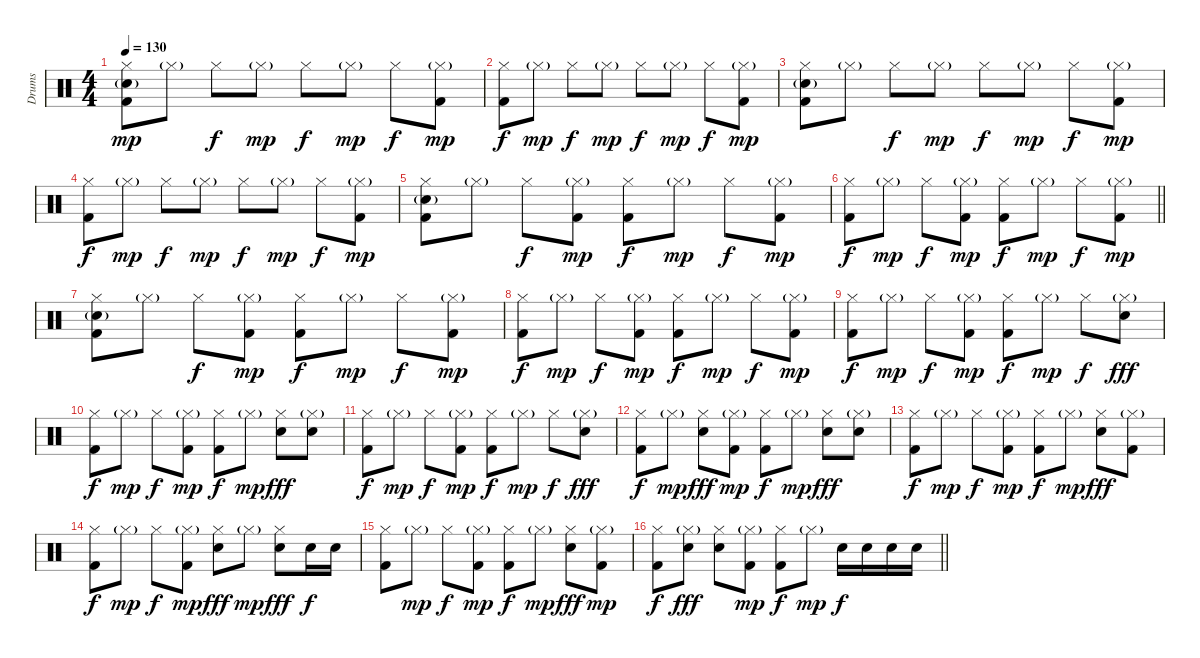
\track ("Drums" "Drums") {instrument percussion}
\staff {score}
\articulation defaults
\ts (4 4)
\tempo 130
\clef neutral
\ks c
("Hi-Hat (closed)" "Snare (hit) 2"{g} "Kick (hit) 2").8{dy mp} "Hi-Hat (closed)"{g}.8 "Hi-Hat (closed)".8{dy f} "Hi-Hat (closed)"{g}.8{dy mp} "Hi-Hat (closed)".8{dy f} "Hi-Hat (closed)"{g}.8{dy mp} "Hi-Hat (closed)".8{dy f} ("Hi-Hat (closed)"{g} "Kick (hit) 2").8{dy mp} |
("Hi-Hat (closed)" "Kick (hit) 2").8{dy f} "Hi-Hat (closed)"{g}.8{dy mp} "Hi-Hat (closed)".8{dy f} "Hi-Hat (closed)"{g}.8{dy mp} "Hi-Hat (closed)".8{dy f} "Hi-Hat (closed)"{g}.8{dy mp} "Hi-Hat (closed)".8{dy f} ("Hi-Hat (closed)"{g} "Kick (hit) 2").8{dy mp} |
("Hi-Hat (closed)" "Snare (hit) 2"{g} "Kick (hit) 2").8 "Hi-Hat (closed)"{g}.8 "Hi-Hat (closed)".8{dy f} "Hi-Hat (closed)"{g}.8{dy mp} "Hi-Hat (closed)".8{dy f} "Hi-Hat (closed)"{g}.8{dy mp} "Hi-Hat (closed)".8{dy f} ("Hi-Hat (closed)"{g} "Kick (hit) 2").8{dy mp} |
("Hi-Hat (closed)" "Kick (hit) 2").8{dy f} "Hi-Hat (closed)"{g}.8{dy mp} "Hi-Hat (closed)".8{dy f} "Hi-Hat (closed)"{g}.8{dy mp} "Hi-Hat (closed)".8{dy f} "Hi-Hat (closed)"{g}.8{dy mp} "Hi-Hat (closed)".8{dy f} ("Hi-Hat (closed)"{g} "Kick (hit) 2").8{dy mp} |
("Hi-Hat (closed)" "Snare (hit) 2"{g} "Kick (hit) 2").8 "Hi-Hat (closed)"{g}.8 "Hi-Hat (closed)".8{dy f} ("Hi-Hat (closed)"{g} "Kick (hit) 2").8{dy mp} ("Hi-Hat (closed)" "Kick (hit) 2").8{dy f} "Hi-Hat (closed)"{g}.8{dy mp} "Hi-Hat (closed)".8{dy f} ("Hi-Hat (closed)"{g} "Kick (hit) 2").8{dy mp} |
\barLineRight lightlight
("Hi-Hat (closed)" "Kick (hit) 2").8{dy f} "Hi-Hat (closed)"{g}.8{dy mp} "Hi-Hat (closed)".8{dy f} ("Hi-Hat (closed)"{g} "Kick (hit) 2").8{dy mp} ("Hi-Hat (closed)" "Kick (hit) 2").8{dy f} "Hi-Hat (closed)"{g}.8{dy mp} "Hi-Hat (closed)".8{dy f} ("Hi-Hat (closed)"{g} "Kick (hit) 2").8{dy mp} |
("Hi-Hat (closed)" "Snare (hit) 2"{g} "Kick (hit) 2").8 "Hi-Hat (closed)"{g}.8 "Hi-Hat (closed)".8{dy f} ("Hi-Hat (closed)"{g} "Kick (hit) 2").8{dy mp} ("Hi-Hat (closed)" "Kick (hit) 2").8{dy f} "Hi-Hat (closed)"{g}.8{dy mp} "Hi-Hat (closed)".8{dy f} ("Hi-Hat (closed)"{g} "Kick (hit) 2").8{dy mp} |
("Hi-Hat (closed)" "Kick (hit) 2").8{dy f} "Hi-Hat (closed)"{g}.8{dy mp} "Hi-Hat (closed)".8{dy f} ("Hi-Hat (closed)"{g} "Kick (hit) 2").8{dy mp} ("Hi-Hat (closed)" "Kick (hit) 2").8{dy f} "Hi-Hat (closed)"{g}.8{dy mp} "Hi-Hat (closed)".8{dy f} ("Hi-Hat (closed)"{g} "Kick (hit) 2").8{dy mp} |
("Hi-Hat (closed)" "Kick (hit) 2").8{dy f} "Hi-Hat (closed)"{g}.8{dy mp} "Hi-Hat (closed)".8{dy f} ("Hi-Hat (closed)"{g} "Kick (hit) 2").8{dy mp} ("Hi-Hat (closed)" "Kick (hit) 2").8{dy f} "Hi-Hat (closed)"{g}.8{dy mp} "Hi-Hat (closed)".8{dy f} ("Hi-Hat (closed)"{g} "Snare (hit) 2").8{dy fff} |
("Hi-Hat (closed)" "Kick (hit) 2").8{dy f} "Hi-Hat (closed)"{g}.8{dy mp} "Hi-Hat (closed)".8{dy f} ("Hi-Hat (closed)"{g} "Kick (hit) 2").8{dy mp} ("Hi-Hat (closed)" "Kick (hit) 2").8{dy f} "Hi-Hat (closed)"{g}.8{dy mp} ("Hi-Hat (closed)" "Snare (hit) 2").8{dy fff} ("Hi-Hat (closed)"{g} "Snare (hit) 2").8 |
("Hi-Hat (closed)" "Kick (hit) 2").8{dy f} "Hi-Hat (closed)"{g}.8{dy mp} "Hi-Hat (closed)".8{dy f} ("Hi-Hat (closed)"{g} "Kick (hit) 2").8{dy mp} ("Hi-Hat (closed)" "Kick (hit) 2").8{dy f} "Hi-Hat (closed)"{g}.8{dy mp} "Hi-Hat (closed)".8{dy f} ("Hi-Hat (closed)"{g} "Snare (hit) 2").8{dy fff} |
("Hi-Hat (closed)" "Kick (hit) 2").8{dy f} "Hi-Hat (closed)"{g}.8{dy mp} ("Hi-Hat (closed)" "Snare (hit) 2").8{dy fff} ("Hi-Hat (closed)"{g} "Kick (hit) 2").8{dy mp} ("Hi-Hat (closed)" "Kick (hit) 2").8{dy f} "Hi-Hat (closed)"{g}.8{dy mp} ("Hi-Hat (closed)" "Snare (hit) 2").8{dy fff} ("Hi-Hat (closed)"{g} "Snare (hit) 2").8 |
("Hi-Hat (closed)" "Kick (hit) 2").8{dy f} "Hi-Hat (closed)"{g}.8{dy mp} "Hi-Hat (closed)".8{dy f} ("Hi-Hat (closed)"{g} "Kick (hit) 2").8{dy mp} ("Hi-Hat (closed)" "Kick (hit) 2").8{dy f} "Hi-Hat (closed)"{g}.8{dy mp} ("Hi-Hat (closed)" "Snare (hit) 2").8{dy fff} ("Hi-Hat (closed)"{g} "Kick (hit) 2").8 |
("Hi-Hat (closed)" "Kick (hit) 2").8{dy f} "Hi-Hat (closed)"{g}.8{dy mp} "Hi-Hat (closed)".8{dy f} ("Hi-Hat (closed)"{g} "Kick (hit) 2").8{dy mp} ("Hi-Hat (closed)" "Snare (hit) 2").8{dy fff} "Hi-Hat (closed)"{g}.8{dy mp} ("Hi-Hat (closed)" "Snare (hit) 2").8{dy fff} "Snare (hit) 2".16{dy f} "Snare (hit) 2".16 |
("Hi-Hat (closed)" "Kick (hit) 2").8 "Hi-Hat (closed)"{g}.8{dy mp} "Hi-Hat (closed)".8{dy f} ("Hi-Hat (closed)"{g} "Kick (hit) 2").8{dy mp} ("Hi-Hat (closed)" "Kick (hit) 2").8{dy f} "Hi-Hat (closed)"{g}.8{dy mp} ("Hi-Hat (closed)" "Snare (hit) 2").8{dy fff} ("Hi-Hat (closed)"{g} "Kick (hit) 2").8{dy mp} |
\barLineRight lightlight
("Hi-Hat (closed)" "Kick (hit) 2").8{dy f} ("Hi-Hat (closed)"{g} "Snare (hit) 2").8{dy fff} ("Hi-Hat (closed)" "Snare (hit) 2").8 ("Hi-Hat (closed)"{g} "Kick (hit) 2").8{dy mp} ("Hi-Hat (closed)" "Kick (hit) 2").8{dy f} "Hi-Hat (closed)"{g}.8{dy mp} "Snare (hit) 2".16{dy f} "Snare (hit) 2".16 "Snare (hit) 2".16 "Snare (hit) 2".16
